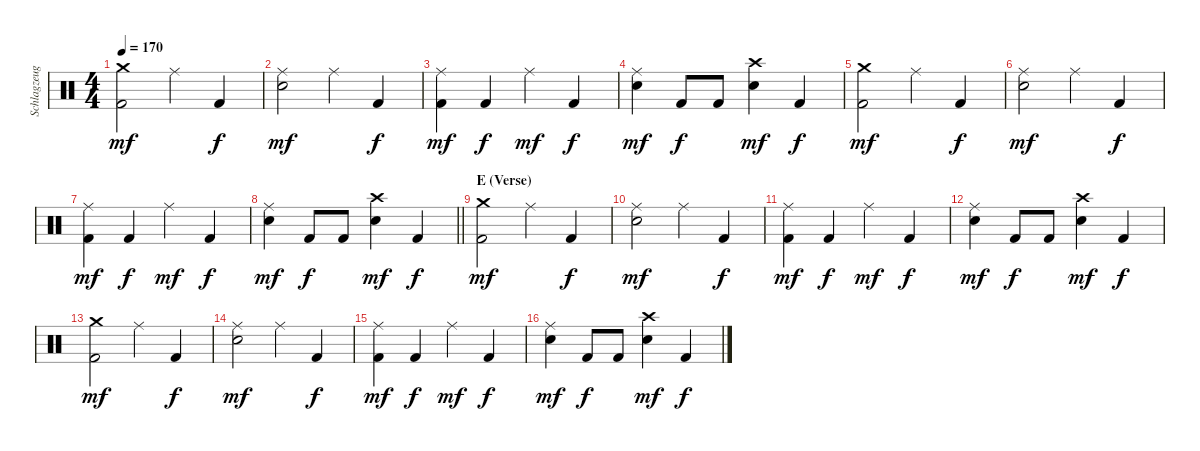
\track ("Schlagzeug" "Schlagzeug") {instrument percussion}
\staff {score}
\articulation defaults
\ts (4 4)
\tempo 170
\clef neutral
\ks c
("Crash medium (hit)" "Kick (hit) 2").2{dy mf} "Ride (middle)".4 "Kick (hit) 2".4{dy f} |
("Ride (middle)" "Electric Snare (hit)").2{dy mf} "Ride (middle)".4 "Kick (hit) 2".4{dy f} |
("Ride (middle)" "Kick (hit) 2").4{dy mf} "Kick (hit) 2".4{dy f} "Ride (middle)".4{dy mf} "Kick (hit) 2".4{dy f} |
("Ride (middle)" "Electric Snare (hit)").4{dy mf} "Kick (hit) 2".8{dy f} "Kick (hit) 2".8 ("Crash high (hit)" "Electric Snare (hit)").4{dy mf} "Kick (hit) 2".4{dy f} |
("Crash medium (hit)" "Kick (hit) 2").2{dy mf} "Ride (middle)".4 "Kick (hit) 2".4{dy f} |
("Ride (middle)" "Electric Snare (hit)").2{dy mf} "Ride (middle)".4 "Kick (hit) 2".4{dy f} |
("Ride (middle)" "Kick (hit) 2").4{dy mf} "Kick (hit) 2".4{dy f} "Ride (middle)".4{dy mf} "Kick (hit) 2".4{dy f} |
\barLineRight lightlight
("Ride (middle)" "Electric Snare (hit)").4{dy mf} "Kick (hit) 2".8{dy f} "Kick (hit) 2".8 ("Crash high (hit)" "Electric Snare (hit)").4{dy mf} "Kick (hit) 2".4{dy f} |
\section ("" "E (Verse) ")
("Crash medium (hit)" "Kick (hit) 2").2{dy mf} "Ride (middle)".4 "Kick (hit) 2".4{dy f} |
("Ride (middle)" "Electric Snare (hit)").2{dy mf} "Ride (middle)".4 "Kick (hit) 2".4{dy f} |
("Ride (middle)" "Kick (hit) 2").4{dy mf} "Kick (hit) 2".4{dy f} "Ride (middle)".4{dy mf} "Kick (hit) 2".4{dy f} |
("Ride (middle)" "Electric Snare (hit)").4{dy mf} "Kick (hit) 2".8{dy f} "Kick (hit) 2".8 ("Crash high (hit)" "Electric Snare (hit)").4{dy mf} "Kick (hit) 2".4{dy f} |
("Crash medium (hit)" "Kick (hit) 2").2{dy mf} "Ride (middle)".4 "Kick (hit) 2".4{dy f} |
("Ride (middle)" "Electric Snare (hit)").2{dy mf} "Ride (middle)".4 "Kick (hit) 2".4{dy f} |
("Ride (middle)" "Kick (hit) 2").4{dy mf} "Kick (hit) 2".4{dy f} "Ride (middle)".4{dy mf} "Kick (hit) 2".4{dy f} |
("Ride (middle)" "Electric Snare (hit)").4{dy mf} "Kick (hit) 2".8{dy f} "Kick (hit) 2".8 ("Crash high (hit)" "Electric Snare (hit)").4{dy mf} "Kick (hit) 2".4{dy f}
